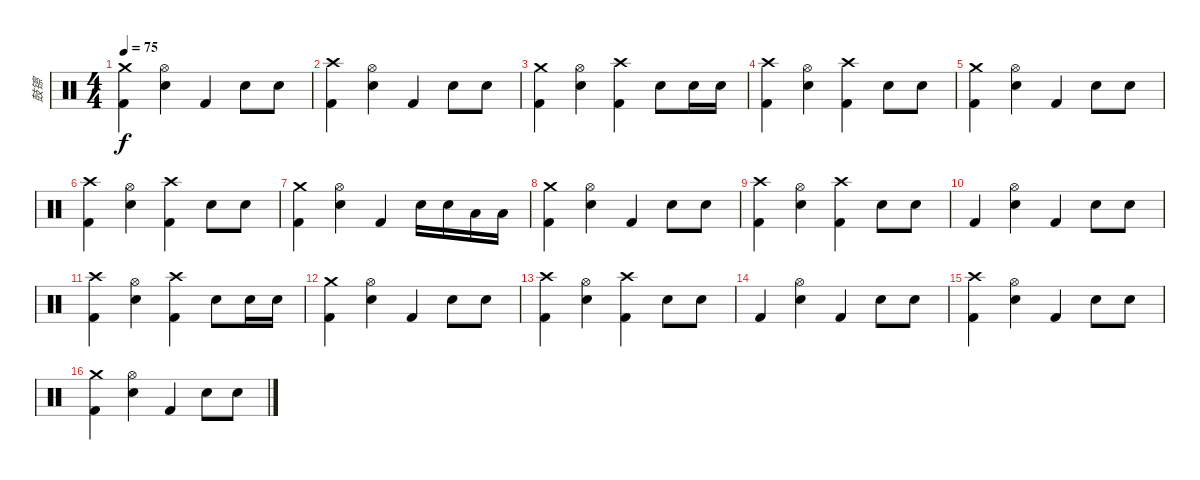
\track ("鼓镲" "鼓镲") {instrument percussion}
\staff {score}
\articulation defaults
\ts (4 4)
\tempo 75
\clef neutral
\ks c
("Crash medium (hit)" "Kick (hit) 2").4{dy f} ("Hi-Hat (open)" "Electric Snare (hit)").4 "Kick (hit) 2".4 "Electric Snare (hit)".8 "Electric Snare (hit)".8 |
("Crash high (hit)" "Kick (hit) 2").4 ("Hi-Hat (open)" "Electric Snare (hit)").4 "Kick (hit) 2".4 "Electric Snare (hit)".8 "Electric Snare (hit)".8 |
("Crash medium (hit)" "Kick (hit) 2").4 ("Hi-Hat (open)" "Electric Snare (hit)").4 ("Crash high (hit)" "Kick (hit) 2").4 "Electric Snare (hit)".8 "Electric Snare (hit)".16 "Electric Snare (hit)".16 |
("Crash high (hit)" "Kick (hit) 2").4 ("Hi-Hat (open)" "Electric Snare (hit)").4 ("Crash high (hit)" "Kick (hit) 2").4 "Electric Snare (hit)".8 "Electric Snare (hit)".8 |
("Crash medium (hit)" "Kick (hit) 2").4 ("Hi-Hat (open)" "Electric Snare (hit)").4 "Kick (hit) 2".4 "Electric Snare (hit)".8 "Electric Snare (hit)".8 |
("Crash high (hit)" "Kick (hit) 2").4 ("Hi-Hat (open)" "Electric Snare (hit)").4 ("Crash high (hit)" "Kick (hit) 2").4 "Electric Snare (hit)".8 "Electric Snare (hit)".8 |
("Crash medium (hit)" "Kick (hit) 2").4 ("Hi-Hat (open)" "Electric Snare (hit)").4 "Kick (hit) 2".4 "Electric Snare (hit)".16 "Electric Snare (hit)".16 "Low Tom (hit)".16 "Low Tom (hit)".16 |
("Crash medium (hit)" "Kick (hit) 2").4 ("Hi-Hat (open)" "Electric Snare (hit)").4 "Kick (hit) 2".4 "Electric Snare (hit)".8 "Electric Snare (hit)".8 |
("Crash high (hit)" "Kick (hit) 2").4 ("Hi-Hat (open)" "Electric Snare (hit)").4 ("Crash high (hit)" "Kick (hit) 2").4 "Electric Snare (hit)".8 "Electric Snare (hit)".8 |
"Kick (hit) 2".4 ("Hi-Hat (open)" "Electric Snare (hit)").4 "Kick (hit) 2".4 "Electric Snare (hit)".8 "Electric Snare (hit)".8 |
("Crash high (hit)" "Kick (hit) 2").4 ("Hi-Hat (open)" "Electric Snare (hit)").4 ("Crash high (hit)" "Kick (hit) 2").4 "Electric Snare (hit)".8 "Electric Snare (hit)".16 "Electric Snare (hit)".16 |
("Crash medium (hit)" "Kick (hit) 2").4 ("Hi-Hat (open)" "Electric Snare (hit)").4 "Kick (hit) 2".4 "Electric Snare (hit)".8 "Electric Snare (hit)".8 |
("Crash high (hit)" "Kick (hit) 2").4 ("Hi-Hat (open)" "Electric Snare (hit)").4 ("Crash high (hit)" "Kick (hit) 2").4 "Electric Snare (hit)".8 "Electric Snare (hit)".8 |
"Kick (hit) 2".4 ("Hi-Hat (open)" "Electric Snare (hit)").4 "Kick (hit) 2".4 "Electric Snare (hit)".8 "Electric Snare (hit)".8 |
("Crash high (hit)" "Kick (hit) 2").4 ("Hi-Hat (open)" "Electric Snare (hit)").4 "Kick (hit) 2".4 "Electric Snare (hit)".8 "Electric Snare (hit)".8 |
("Crash medium (hit)" "Kick (hit) 2").4 ("Hi-Hat (open)" "Electric Snare (hit)").4 "Kick (hit) 2".4 "Electric Snare (hit)".8 "Electric Snare (hit)".8
